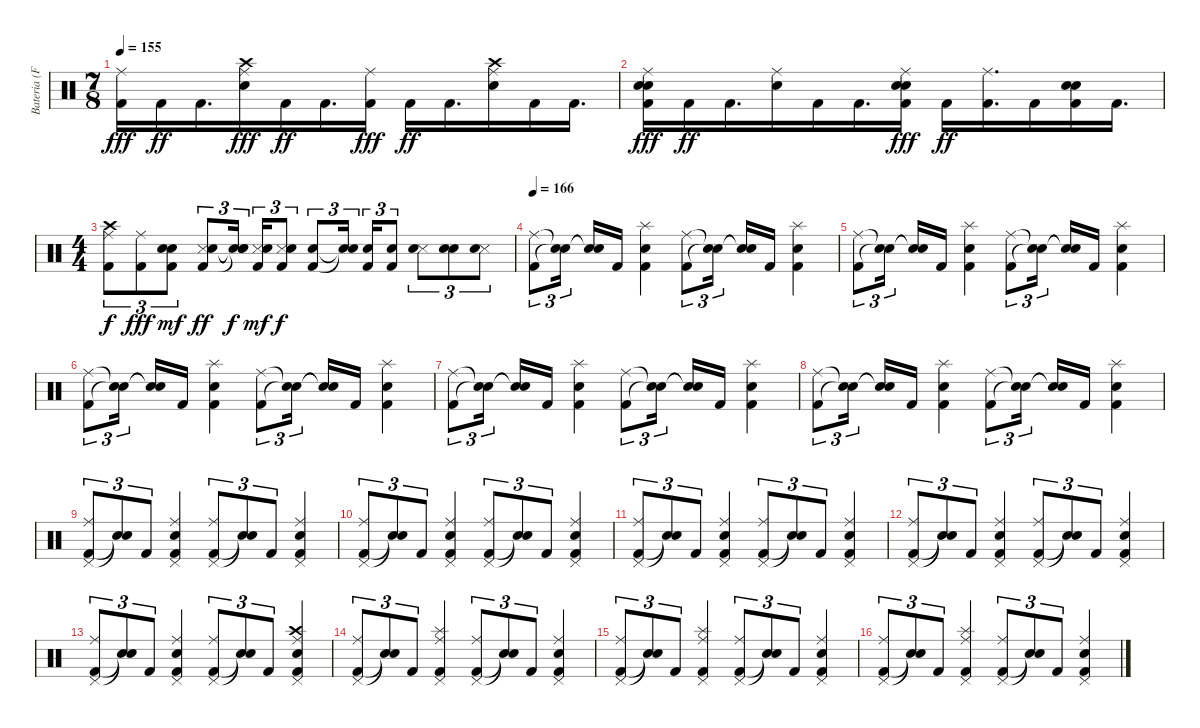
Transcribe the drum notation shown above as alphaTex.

\track ("Bateria (Fernando Scarcella)" "Bateria (F") {instrument percussion}
\staff {score}
\articulation defaults
\ts (7 8)
\tempo 155
\clef neutral
\ks c
("Kick (hit) 2" "Ride (middle)").16{dy fff} "Kick (hit) 2".16{dy ff} "Kick (hit) 2".16{d} ("Electric Snare (hit)" "Crash high (hit)" "Ride (middle)").16{dy fff} "Kick (hit) 2".16{dy ff} "Kick (hit) 2".16{d} ("Kick (hit) 2" "Ride (middle)").16{dy fff} "Kick (hit) 2".16{dy ff} "Kick (hit) 2".16{d} ("Electric Snare (hit)" "Crash high (hit)" "Ride (middle)").16 "Kick (hit) 2".16 "Kick (hit) 2".16{d} |
("Kick (hit) 2" "Ride (middle)" "Snare (hit) 2" "Electric Snare (hit)").16{dy fff} "Kick (hit) 2".16{dy ff} "Kick (hit) 2".16{d} ("Snare (hit) 2" "Ride (middle)").16 "Kick (hit) 2".16 "Kick (hit) 2".16{d} ("Kick (hit) 2" "Ride (middle)" "Snare (hit) 2" "Electric Snare (hit)").16{dy fff} "Kick (hit) 2".16{dy ff} ("Kick (hit) 2" "Ride (middle)").16{d} "Kick (hit) 2".16 ("Kick (hit) 2" "Snare (hit) 2" "Electric Snare (hit)").16 "Kick (hit) 2".16{d} |
\ts (4 4)
("Kick (hit) 2" "Ride (middle)" "Crash high (hit)").8{tu (3 2) dy f} ("Kick (hit) 2" "Ride (middle)").8{tu (3 2) dy fff} ("Kick (hit) 2" "Snare (hit) 2" "Electric Snare (hit)").8{tu (3 2) dy mf} ("Kick (hit) 2" "Snare (side stick) 3" "Electric Snare (hit)").8{tu (3 2) dy ff} ("Snare (hit)"{t} "Snare (hit)"{t} "Snare (hit)"{t}).16{tu (3 2) dy f beam splitsecondary} ("Kick (hit) 2" "Snare (side stick) 3" "Electric Snare (hit)").16{tu (3 2) dy mf} ("Kick (hit) 2" "Snare (side stick) 3" "Electric Snare (hit)").8{tu (3 2) dy f} ("Snare (hit) 2" "Kick (hit) 2").8{tu (3 2)} ("Snare (hit)"{t} "Snare (hit)"{t}).16{tu (3 2) beam splitsecondary} ("Snare (hit) 2" "Kick (hit) 2").16{tu (3 2)} ("Snare (hit) 2" "Kick (hit) 2").8{tu (3 2)} ("Snare (side stick) 3" "Electric Snare (hit)").8{tu (3 2)} ("Snare (hit) 2" "Electric Snare (hit)").8{tu (3 2)} ("Snare (side stick) 3" "Electric Snare (hit)").8{tu (3 2)} |
\tempo 166
("Kick (hit) 2" "Ride (middle)").8{tu (3 2)} ("Snare (hit)"{t} "Snare (hit)"{t}).16{tu (3 2) beam splitsecondary} ("Snare (hit)"{t} "Snare (hit)"{t}).16 "Kick (hit) 2".16 ("Kick (hit) 2" "Splash (hit)" "Electric Snare (hit)").4 ("Kick (hit) 2" "Ride (middle)").8{tu (3 2)} ("Snare (hit)"{t} "Snare (hit)"{t}).16{tu (3 2) beam splitsecondary} ("Snare (hit)"{t} "Snare (hit)"{t}).16 "Kick (hit) 2".16 ("Kick (hit) 2" "Splash (hit)" "Snare (hit) 2").4 |
("Kick (hit) 2" "Ride (middle)").8{tu (3 2)} ("Snare (hit)"{t} "Snare (hit)"{t}).16{tu (3 2) beam splitsecondary} ("Snare (hit)"{t} "Snare (hit)"{t}).16 "Kick (hit) 2".16 ("Kick (hit) 2" "Splash (hit)" "Electric Snare (hit)").4 ("Kick (hit) 2" "Ride (middle)").8{tu (3 2)} ("Snare (hit)"{t} "Snare (hit)"{t}).16{tu (3 2) beam splitsecondary} ("Snare (hit)"{t} "Snare (hit)"{t}).16 "Kick (hit) 2".16 ("Kick (hit) 2" "Splash (hit)" "Snare (hit) 2").4 |
("Kick (hit) 2" "Ride (middle)").8{tu (3 2)} ("Snare (hit)"{t} "Snare (hit)"{t}).16{tu (3 2) beam splitsecondary} ("Snare (hit)"{t} "Snare (hit)"{t}).16 "Kick (hit) 2".16 ("Kick (hit) 2" "Splash (hit)" "Electric Snare (hit)").4 ("Kick (hit) 2" "Ride (middle)").8{tu (3 2)} ("Snare (hit)"{t} "Snare (hit)"{t}).16{tu (3 2) beam splitsecondary} ("Snare (hit)"{t} "Snare (hit)"{t}).16 "Kick (hit) 2".16 ("Kick (hit) 2" "Splash (hit)" "Snare (hit) 2").4 |
("Kick (hit) 2" "Ride (middle)").8{tu (3 2)} ("Snare (hit)"{t} "Snare (hit)"{t}).16{tu (3 2) beam splitsecondary} ("Snare (hit)"{t} "Snare (hit)"{t}).16 "Kick (hit) 2".16 ("Kick (hit) 2" "Splash (hit)" "Electric Snare (hit)").4 ("Kick (hit) 2" "Ride (middle)").8{tu (3 2)} ("Snare (hit)"{t} "Snare (hit)"{t}).16{tu (3 2) beam splitsecondary} ("Snare (hit)"{t} "Snare (hit)"{t}).16 "Kick (hit) 2".16 ("Kick (hit) 2" "Splash (hit)" "Snare (hit) 2").4 |
("Kick (hit) 2" "Ride (middle)").8{tu (3 2)} ("Snare (hit)"{t} "Snare (hit)"{t}).16{tu (3 2) beam splitsecondary} ("Snare (hit)"{t} "Snare (hit)"{t}).16 "Kick (hit) 2".16 ("Kick (hit) 2" "Splash (hit)" "Electric Snare (hit)").4 ("Kick (hit) 2" "Ride (middle)").8{tu (3 2)} ("Snare (hit)"{t} "Snare (hit)"{t}).16{tu (3 2) beam splitsecondary} ("Snare (hit)"{t} "Snare (hit)"{t}).16 "Kick (hit) 2".16 ("Kick (hit) 2" "Splash (hit)" "Snare (hit) 2").4 |
("Kick (hit) 2" "Pedal Hi-Hat (hit)" "Ride (middle)").8{tu (3 2)} ("Snare (hit)"{t} "Snare (hit)"{t}).8{tu (3 2)} "Kick (hit) 2".8{tu (3 2)} ("Kick (hit) 2" "Pedal Hi-Hat (hit)" "Snare (hit) 2" "Ride (middle)").4 ("Kick (hit) 2" "Pedal Hi-Hat (hit)" "Ride (middle)").8{tu (3 2)} ("Snare (hit)"{t} "Snare (hit)"{t}).8{tu (3 2)} "Kick (hit) 2".8{tu (3 2)} ("Kick (hit) 2" "Pedal Hi-Hat (hit)" "Electric Snare (hit)" "Ride (middle)").4 |
("Kick (hit) 2" "Pedal Hi-Hat (hit)" "Ride (middle)").8{tu (3 2)} ("Snare (hit)"{t} "Snare (hit)"{t}).8{tu (3 2)} "Kick (hit) 2".8{tu (3 2)} ("Kick (hit) 2" "Pedal Hi-Hat (hit)" "Snare (hit) 2" "Ride (middle)").4 ("Kick (hit) 2" "Pedal Hi-Hat (hit)" "Ride (middle)").8{tu (3 2)} ("Snare (hit)"{t} "Snare (hit)"{t}).8{tu (3 2)} "Kick (hit) 2".8{tu (3 2)} ("Kick (hit) 2" "Pedal Hi-Hat (hit)" "Electric Snare (hit)" "Ride (middle)").4 |
("Kick (hit) 2" "Pedal Hi-Hat (hit)" "Ride (middle)").8{tu (3 2)} ("Snare (hit)"{t} "Snare (hit)"{t}).8{tu (3 2)} "Kick (hit) 2".8{tu (3 2)} ("Kick (hit) 2" "Pedal Hi-Hat (hit)" "Snare (hit) 2" "Ride (middle)").4 ("Kick (hit) 2" "Pedal Hi-Hat (hit)" "Ride (middle)").8{tu (3 2)} ("Snare (hit)"{t} "Snare (hit)"{t}).8{tu (3 2)} "Kick (hit) 2".8{tu (3 2)} ("Kick (hit) 2" "Pedal Hi-Hat (hit)" "Electric Snare (hit)" "Ride (middle)").4 |
("Kick (hit) 2" "Pedal Hi-Hat (hit)" "Ride (middle)").8{tu (3 2)} ("Snare (hit)"{t} "Snare (hit)"{t}).8{tu (3 2)} "Kick (hit) 2".8{tu (3 2)} ("Kick (hit) 2" "Pedal Hi-Hat (hit)" "Snare (hit) 2" "Ride (middle)").4 ("Kick (hit) 2" "Pedal Hi-Hat (hit)" "Ride (middle)").8{tu (3 2)} ("Snare (hit)"{t} "Snare (hit)"{t}).8{tu (3 2)} "Kick (hit) 2".8{tu (3 2)} ("Kick (hit) 2" "Pedal Hi-Hat (hit)" "Electric Snare (hit)" "Ride (middle)").4 |
("Kick (hit) 2" "Pedal Hi-Hat (hit)" "Ride (middle)").8{tu (3 2)} ("Snare (hit)"{t} "Snare (hit)"{t}).8{tu (3 2)} "Kick (hit) 2".8{tu (3 2)} ("Kick (hit) 2" "Pedal Hi-Hat (hit)" "Electric Snare (hit)" "Ride (middle)").4 ("Kick (hit) 2" "Pedal Hi-Hat (hit)" "Ride (middle)").8{tu (3 2)} ("Snare (hit)"{t} "Snare (hit)"{t}).8{tu (3 2)} "Kick (hit) 2".8{tu (3 2)} ("Kick (hit) 2" "Pedal Hi-Hat (hit)" "Snare (hit) 2" "Ride (middle)" "Crash high (hit)").4 |
("Kick (hit) 2" "Pedal Hi-Hat (hit)" "Ride (middle)").8{tu (3 2)} ("Snare (hit)"{t} "Snare (hit)"{t}).8{tu (3 2)} "Kick (hit) 2".8{tu (3 2)} ("Kick (hit) 2" "Pedal Hi-Hat (hit)" "Splash (hit)" "Ride (middle)").4 ("Kick (hit) 2" "Pedal Hi-Hat (hit)" "Ride (middle)").8{tu (3 2)} ("Snare (hit)"{t} "Snare (hit)"{t}).8{tu (3 2)} "Kick (hit) 2".8{tu (3 2)} ("Kick (hit) 2" "Pedal Hi-Hat (hit)" "Electric Snare (hit)" "Ride (middle)").4 |
("Kick (hit) 2" "Pedal Hi-Hat (hit)" "Ride (middle)").8{tu (3 2)} ("Snare (hit)"{t} "Snare (hit)"{t}).8{tu (3 2)} "Kick (hit) 2".8{tu (3 2)} ("Kick (hit) 2" "Pedal Hi-Hat (hit)" "Splash (hit)" "Ride (middle)").4 ("Kick (hit) 2" "Pedal Hi-Hat (hit)" "Ride (middle)").8{tu (3 2)} ("Snare (hit)"{t} "Snare (hit)"{t}).8{tu (3 2)} "Kick (hit) 2".8{tu (3 2)} ("Kick (hit) 2" "Pedal Hi-Hat (hit)" "Electric Snare (hit)" "Ride (middle)").4 |
("Kick (hit) 2" "Pedal Hi-Hat (hit)" "Ride (middle)").8{tu (3 2)} ("Snare (hit)"{t} "Snare (hit)"{t}).8{tu (3 2)} "Kick (hit) 2".8{tu (3 2)} ("Kick (hit) 2" "Pedal Hi-Hat (hit)" "Splash (hit)" "Ride (middle)").4 ("Kick (hit) 2" "Pedal Hi-Hat (hit)" "Ride (middle)").8{tu (3 2)} ("Snare (hit)"{t} "Snare (hit)"{t}).8{tu (3 2)} "Kick (hit) 2".8{tu (3 2)} ("Kick (hit) 2" "Pedal Hi-Hat (hit)" "Electric Snare (hit)" "Ride (middle)").4
